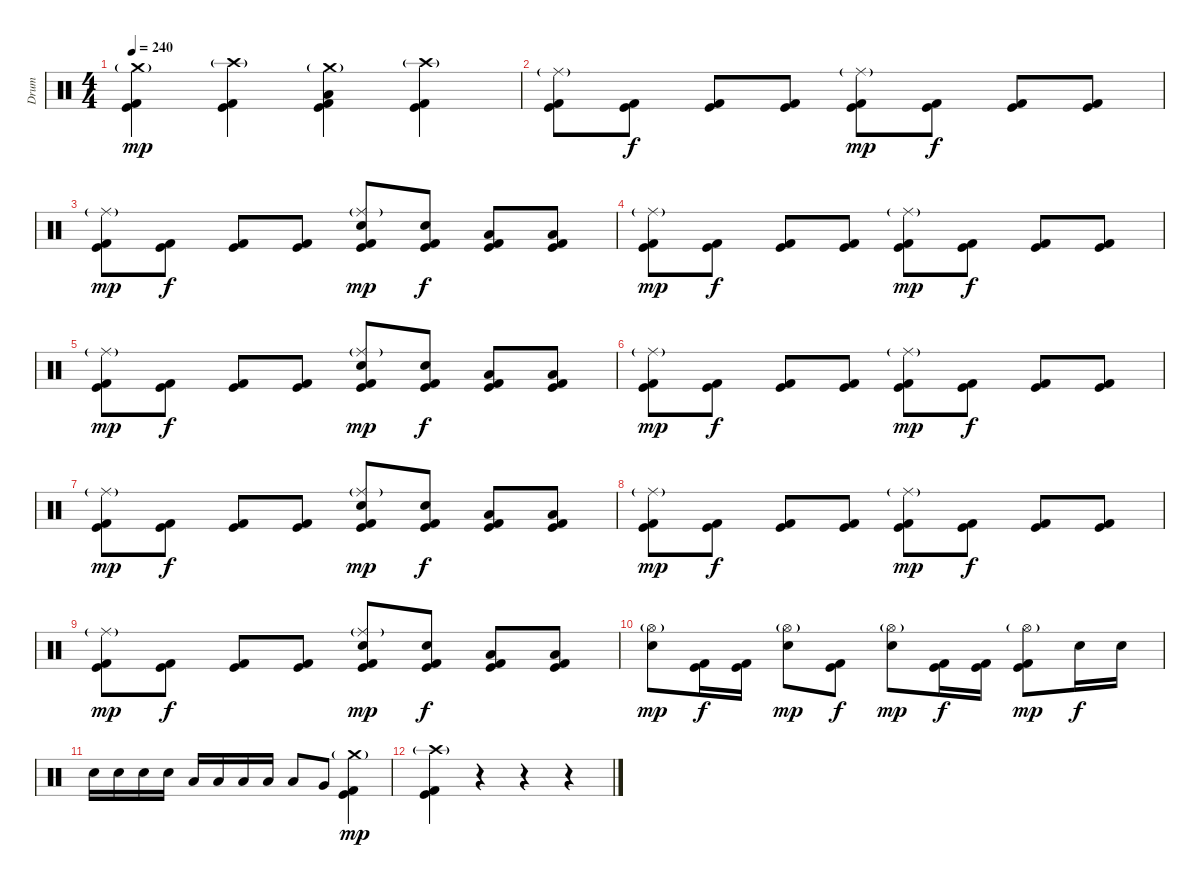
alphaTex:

\track ("Drum" "Drum") {instrument percussion}
\staff {score}
\articulation defaults
\ts (4 4)
\tempo 240
\clef neutral
\ks c
("Crash medium (hit)"{g} "Kick (hit)" "Kick (hit) 2").4{dy mp} ("Crash high (hit)"{g} "Kick (hit)" "Kick (hit) 2").4 ("Crash medium (hit)"{g} "Low Tom (hit)" "Kick (hit)" "Kick (hit) 2").4 ("Crash high (hit)"{g} "Kick (hit)" "Kick (hit) 2").4 |
("Ride (middle)"{g} "Kick (hit)" "Kick (hit) 2").8 ("Kick (hit)" "Kick (hit) 2").8{dy f} ("Kick (hit)" "Kick (hit) 2").8 ("Kick (hit)" "Kick (hit) 2").8 ("Ride (middle)"{g} "Kick (hit)" "Kick (hit) 2").8{dy mp} ("Kick (hit)" "Kick (hit) 2").8{dy f} ("Kick (hit)" "Kick (hit) 2").8 ("Kick (hit)" "Kick (hit) 2").8 |
("Ride (middle)"{g} "Kick (hit)" "Kick (hit) 2").8{dy mp} ("Kick (hit)" "Kick (hit) 2").8{dy f} ("Kick (hit)" "Kick (hit) 2").8 ("Kick (hit)" "Kick (hit) 2").8 ("Ride (middle)"{g} "Electric Snare (hit)" "Kick (hit)" "Kick (hit) 2").8{dy mp} ("Electric Snare (hit)" "Kick (hit)" "Kick (hit) 2").8{dy f} ("Low Tom (hit)" "Kick (hit)" "Kick (hit) 2").8 ("Low Tom (hit)" "Kick (hit)" "Kick (hit) 2").8 |
("Ride (middle)"{g} "Kick (hit)" "Kick (hit) 2").8{dy mp} ("Kick (hit)" "Kick (hit) 2").8{dy f} ("Kick (hit)" "Kick (hit) 2").8 ("Kick (hit)" "Kick (hit) 2").8 ("Ride (middle)"{g} "Kick (hit)" "Kick (hit) 2").8{dy mp} ("Kick (hit)" "Kick (hit) 2").8{dy f} ("Kick (hit)" "Kick (hit) 2").8 ("Kick (hit)" "Kick (hit) 2").8 |
("Ride (middle)"{g} "Kick (hit)" "Kick (hit) 2").8{dy mp} ("Kick (hit)" "Kick (hit) 2").8{dy f} ("Kick (hit)" "Kick (hit) 2").8 ("Kick (hit)" "Kick (hit) 2").8 ("Ride (middle)"{g} "Electric Snare (hit)" "Kick (hit)" "Kick (hit) 2").8{dy mp} ("Electric Snare (hit)" "Kick (hit)" "Kick (hit) 2").8{dy f} ("Low Tom (hit)" "Kick (hit)" "Kick (hit) 2").8 ("Low Tom (hit)" "Kick (hit)" "Kick (hit) 2").8 |
("Ride (middle)"{g} "Kick (hit)" "Kick (hit) 2").8{dy mp} ("Kick (hit)" "Kick (hit) 2").8{dy f} ("Kick (hit)" "Kick (hit) 2").8 ("Kick (hit)" "Kick (hit) 2").8 ("Ride (middle)"{g} "Kick (hit)" "Kick (hit) 2").8{dy mp} ("Kick (hit)" "Kick (hit) 2").8{dy f} ("Kick (hit)" "Kick (hit) 2").8 ("Kick (hit)" "Kick (hit) 2").8 |
("Ride (middle)"{g} "Kick (hit)" "Kick (hit) 2").8{dy mp} ("Kick (hit)" "Kick (hit) 2").8{dy f} ("Kick (hit)" "Kick (hit) 2").8 ("Kick (hit)" "Kick (hit) 2").8 ("Ride (middle)"{g} "Electric Snare (hit)" "Kick (hit)" "Kick (hit) 2").8{dy mp} ("Electric Snare (hit)" "Kick (hit)" "Kick (hit) 2").8{dy f} ("Low Tom (hit)" "Kick (hit)" "Kick (hit) 2").8 ("Low Tom (hit)" "Kick (hit)" "Kick (hit) 2").8 |
("Ride (middle)"{g} "Kick (hit)" "Kick (hit) 2").8{dy mp} ("Kick (hit)" "Kick (hit) 2").8{dy f} ("Kick (hit)" "Kick (hit) 2").8 ("Kick (hit)" "Kick (hit) 2").8 ("Ride (middle)"{g} "Kick (hit)" "Kick (hit) 2").8{dy mp} ("Kick (hit)" "Kick (hit) 2").8{dy f} ("Kick (hit)" "Kick (hit) 2").8 ("Kick (hit)" "Kick (hit) 2").8 |
("Ride (middle)"{g} "Kick (hit)" "Kick (hit) 2").8{dy mp} ("Kick (hit)" "Kick (hit) 2").8{dy f} ("Kick (hit)" "Kick (hit) 2").8 ("Kick (hit)" "Kick (hit) 2").8 ("Ride (middle)"{g} "Electric Snare (hit)" "Kick (hit)" "Kick (hit) 2").8{dy mp} ("Electric Snare (hit)" "Kick (hit)" "Kick (hit) 2").8{dy f} ("Low Tom (hit)" "Kick (hit)" "Kick (hit) 2").8 ("Low Tom (hit)" "Kick (hit)" "Kick (hit) 2").8 |
("Hi-Hat (open)"{g} "Electric Snare (hit)").8{dy mp} ("Kick (hit)" "Kick (hit) 2").16{dy f} ("Kick (hit)" "Kick (hit) 2").16 ("Hi-Hat (open)"{g} "Electric Snare (hit)").8{dy mp} ("Kick (hit)" "Kick (hit) 2").8{dy f} ("Hi-Hat (open)"{g} "Electric Snare (hit)").8{dy mp} ("Kick (hit)" "Kick (hit) 2").16{dy f} ("Kick (hit)" "Kick (hit) 2").16 ("Hi-Hat (open)"{g} "Kick (hit)" "Kick (hit) 2").8{dy mp} "Electric Snare (hit)".16{dy f} "Electric Snare (hit)".16 |
"Electric Snare (hit)".16 "Electric Snare (hit)".16 "Electric Snare (hit)".16 "Electric Snare (hit)".16 "Low Tom (hit)".16 "Low Tom (hit)".16 "Low Tom (hit)".16 "Low Floor Tom (hit)".16 "Low Floor Tom (hit)".8 "Very Low Tom (hit)".8 ("Crash medium (hit)"{g} "Kick (hit)" "Kick (hit) 2").4{dy mp} |
("Crash high (hit)"{g} "Kick (hit)" "Kick (hit) 2").4 r.4 r.4 r.4
